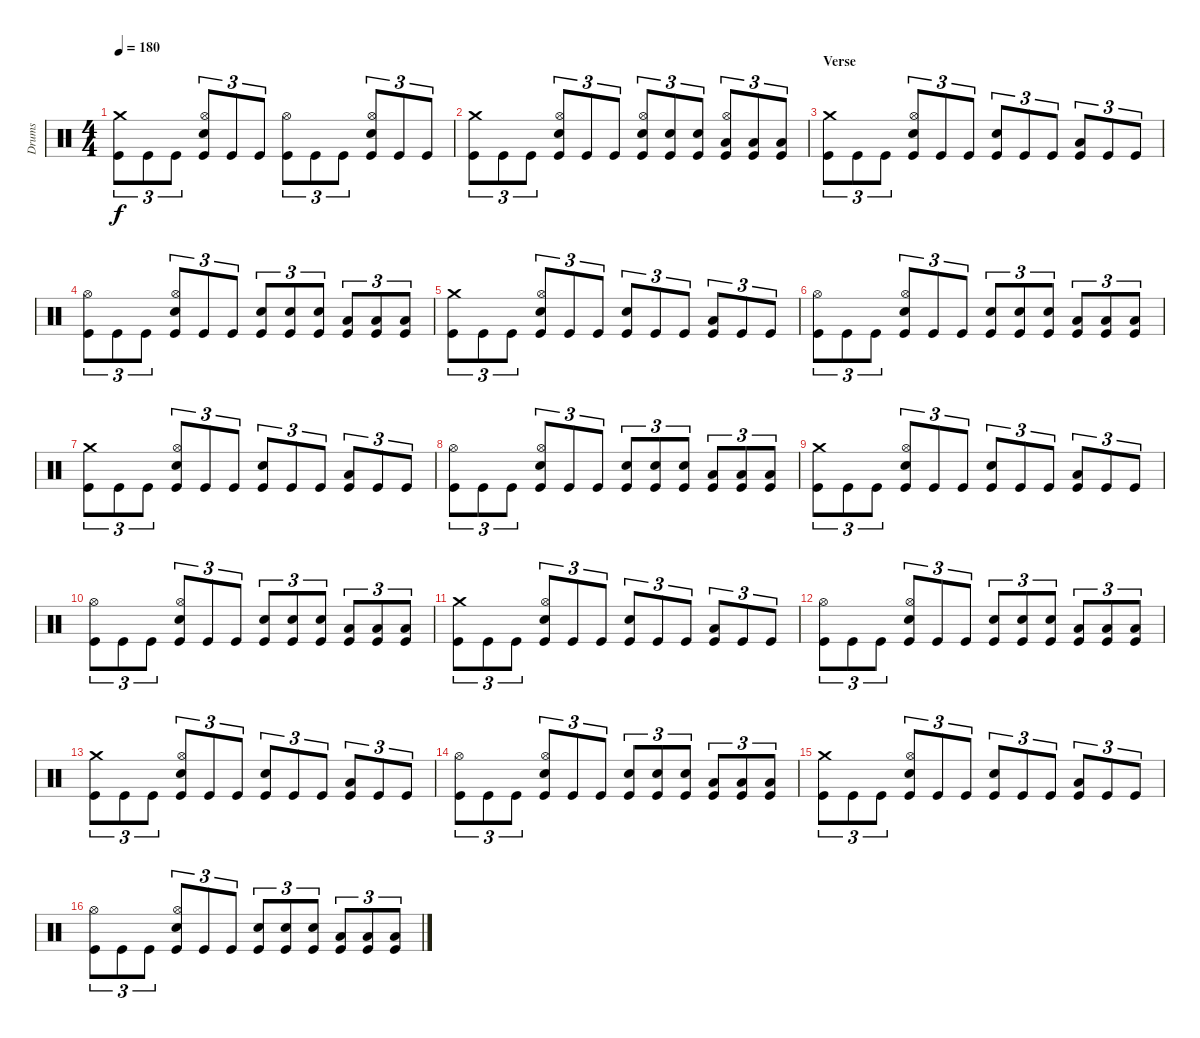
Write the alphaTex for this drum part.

\track ("Drums" "Drums") {instrument percussion}
\staff {score}
\articulation defaults
\ts (4 4)
\tempo 180
\clef neutral
\ks c
("Crash medium (hit)" "Kick (hit)").8{tu (3 2) dy f} "Kick (hit)".8{tu (3 2)} "Kick (hit)".8{tu (3 2)} ("Hi-Hat (open)" "Electric Snare (hit)" "Kick (hit)").8{tu (3 2)} "Kick (hit)".8{tu (3 2)} "Kick (hit)".8{tu (3 2)} ("Hi-Hat (open)" "Kick (hit)").8{tu (3 2)} "Kick (hit)".8{tu (3 2)} "Kick (hit)".8{tu (3 2)} ("Hi-Hat (open)" "Electric Snare (hit)" "Kick (hit)").8{tu (3 2)} "Kick (hit)".8{tu (3 2)} "Kick (hit)".8{tu (3 2)} |
("Crash medium (hit)" "Kick (hit)").8{tu (3 2)} "Kick (hit)".8{tu (3 2)} "Kick (hit)".8{tu (3 2)} ("Hi-Hat (open)" "Electric Snare (hit)" "Kick (hit)").8{tu (3 2)} "Kick (hit)".8{tu (3 2)} "Kick (hit)".8{tu (3 2)} ("Hi-Hat (open)" "Electric Snare (hit)" "Kick (hit)").8{tu (3 2)} ("Electric Snare (hit)" "Kick (hit)").8{tu (3 2)} ("Electric Snare (hit)" "Kick (hit)").8{tu (3 2)} ("Hi-Hat (open)" "Low Tom (hit)" "Kick (hit)").8{tu (3 2)} ("Low Tom (hit)" "Kick (hit)").8{tu (3 2)} ("Low Tom (hit)" "Kick (hit)").8{tu (3 2)} |
\section ("" "Verse")
("Crash medium (hit)" "Kick (hit)").8{tu (3 2)} "Kick (hit)".8{tu (3 2)} "Kick (hit)".8{tu (3 2)} ("Hi-Hat (open)" "Electric Snare (hit)" "Kick (hit)").8{tu (3 2)} "Kick (hit)".8{tu (3 2)} "Kick (hit)".8{tu (3 2)} ("Electric Snare (hit)" "Kick (hit)").8{tu (3 2)} "Kick (hit)".8{tu (3 2)} "Kick (hit)".8{tu (3 2)} ("Low Tom (hit)" "Kick (hit)").8{tu (3 2)} "Kick (hit)".8{tu (3 2)} "Kick (hit)".8{tu (3 2)} |
("Hi-Hat (open)" "Kick (hit)").8{tu (3 2)} "Kick (hit)".8{tu (3 2)} "Kick (hit)".8{tu (3 2)} ("Hi-Hat (open)" "Electric Snare (hit)" "Kick (hit)").8{tu (3 2)} "Kick (hit)".8{tu (3 2)} "Kick (hit)".8{tu (3 2)} ("Electric Snare (hit)" "Kick (hit)").8{tu (3 2)} ("Electric Snare (hit)" "Kick (hit)").8{tu (3 2)} ("Electric Snare (hit)" "Kick (hit)").8{tu (3 2)} ("Low Tom (hit)" "Kick (hit)").8{tu (3 2)} ("Low Tom (hit)" "Kick (hit)").8{tu (3 2)} ("Low Tom (hit)" "Kick (hit)").8{tu (3 2)} |
("Crash medium (hit)" "Kick (hit)").8{tu (3 2)} "Kick (hit)".8{tu (3 2)} "Kick (hit)".8{tu (3 2)} ("Hi-Hat (open)" "Electric Snare (hit)" "Kick (hit)").8{tu (3 2)} "Kick (hit)".8{tu (3 2)} "Kick (hit)".8{tu (3 2)} ("Electric Snare (hit)" "Kick (hit)").8{tu (3 2)} "Kick (hit)".8{tu (3 2)} "Kick (hit)".8{tu (3 2)} ("Low Tom (hit)" "Kick (hit)").8{tu (3 2)} "Kick (hit)".8{tu (3 2)} "Kick (hit)".8{tu (3 2)} |
("Hi-Hat (open)" "Kick (hit)").8{tu (3 2)} "Kick (hit)".8{tu (3 2)} "Kick (hit)".8{tu (3 2)} ("Hi-Hat (open)" "Electric Snare (hit)" "Kick (hit)").8{tu (3 2)} "Kick (hit)".8{tu (3 2)} "Kick (hit)".8{tu (3 2)} ("Electric Snare (hit)" "Kick (hit)").8{tu (3 2)} ("Electric Snare (hit)" "Kick (hit)").8{tu (3 2)} ("Electric Snare (hit)" "Kick (hit)").8{tu (3 2)} ("Low Tom (hit)" "Kick (hit)").8{tu (3 2)} ("Low Tom (hit)" "Kick (hit)").8{tu (3 2)} ("Low Tom (hit)" "Kick (hit)").8{tu (3 2)} |
("Crash medium (hit)" "Kick (hit)").8{tu (3 2)} "Kick (hit)".8{tu (3 2)} "Kick (hit)".8{tu (3 2)} ("Hi-Hat (open)" "Electric Snare (hit)" "Kick (hit)").8{tu (3 2)} "Kick (hit)".8{tu (3 2)} "Kick (hit)".8{tu (3 2)} ("Electric Snare (hit)" "Kick (hit)").8{tu (3 2)} "Kick (hit)".8{tu (3 2)} "Kick (hit)".8{tu (3 2)} ("Low Tom (hit)" "Kick (hit)").8{tu (3 2)} "Kick (hit)".8{tu (3 2)} "Kick (hit)".8{tu (3 2)} |
("Hi-Hat (open)" "Kick (hit)").8{tu (3 2)} "Kick (hit)".8{tu (3 2)} "Kick (hit)".8{tu (3 2)} ("Hi-Hat (open)" "Electric Snare (hit)" "Kick (hit)").8{tu (3 2)} "Kick (hit)".8{tu (3 2)} "Kick (hit)".8{tu (3 2)} ("Electric Snare (hit)" "Kick (hit)").8{tu (3 2)} ("Electric Snare (hit)" "Kick (hit)").8{tu (3 2)} ("Electric Snare (hit)" "Kick (hit)").8{tu (3 2)} ("Low Tom (hit)" "Kick (hit)").8{tu (3 2)} ("Low Tom (hit)" "Kick (hit)").8{tu (3 2)} ("Low Tom (hit)" "Kick (hit)").8{tu (3 2)} |
("Crash medium (hit)" "Kick (hit)").8{tu (3 2)} "Kick (hit)".8{tu (3 2)} "Kick (hit)".8{tu (3 2)} ("Hi-Hat (open)" "Electric Snare (hit)" "Kick (hit)").8{tu (3 2)} "Kick (hit)".8{tu (3 2)} "Kick (hit)".8{tu (3 2)} ("Electric Snare (hit)" "Kick (hit)").8{tu (3 2)} "Kick (hit)".8{tu (3 2)} "Kick (hit)".8{tu (3 2)} ("Low Tom (hit)" "Kick (hit)").8{tu (3 2)} "Kick (hit)".8{tu (3 2)} "Kick (hit)".8{tu (3 2)} |
("Hi-Hat (open)" "Kick (hit)").8{tu (3 2)} "Kick (hit)".8{tu (3 2)} "Kick (hit)".8{tu (3 2)} ("Hi-Hat (open)" "Electric Snare (hit)" "Kick (hit)").8{tu (3 2)} "Kick (hit)".8{tu (3 2)} "Kick (hit)".8{tu (3 2)} ("Electric Snare (hit)" "Kick (hit)").8{tu (3 2)} ("Electric Snare (hit)" "Kick (hit)").8{tu (3 2)} ("Electric Snare (hit)" "Kick (hit)").8{tu (3 2)} ("Low Tom (hit)" "Kick (hit)").8{tu (3 2)} ("Low Tom (hit)" "Kick (hit)").8{tu (3 2)} ("Low Tom (hit)" "Kick (hit)").8{tu (3 2)} |
("Crash medium (hit)" "Kick (hit)").8{tu (3 2)} "Kick (hit)".8{tu (3 2)} "Kick (hit)".8{tu (3 2)} ("Hi-Hat (open)" "Electric Snare (hit)" "Kick (hit)").8{tu (3 2)} "Kick (hit)".8{tu (3 2)} "Kick (hit)".8{tu (3 2)} ("Electric Snare (hit)" "Kick (hit)").8{tu (3 2)} "Kick (hit)".8{tu (3 2)} "Kick (hit)".8{tu (3 2)} ("Low Tom (hit)" "Kick (hit)").8{tu (3 2)} "Kick (hit)".8{tu (3 2)} "Kick (hit)".8{tu (3 2)} |
("Hi-Hat (open)" "Kick (hit)").8{tu (3 2)} "Kick (hit)".8{tu (3 2)} "Kick (hit)".8{tu (3 2)} ("Hi-Hat (open)" "Electric Snare (hit)" "Kick (hit)").8{tu (3 2)} "Kick (hit)".8{tu (3 2)} "Kick (hit)".8{tu (3 2)} ("Electric Snare (hit)" "Kick (hit)").8{tu (3 2)} ("Electric Snare (hit)" "Kick (hit)").8{tu (3 2)} ("Electric Snare (hit)" "Kick (hit)").8{tu (3 2)} ("Low Tom (hit)" "Kick (hit)").8{tu (3 2)} ("Low Tom (hit)" "Kick (hit)").8{tu (3 2)} ("Low Tom (hit)" "Kick (hit)").8{tu (3 2)} |
("Crash medium (hit)" "Kick (hit)").8{tu (3 2)} "Kick (hit)".8{tu (3 2)} "Kick (hit)".8{tu (3 2)} ("Hi-Hat (open)" "Electric Snare (hit)" "Kick (hit)").8{tu (3 2)} "Kick (hit)".8{tu (3 2)} "Kick (hit)".8{tu (3 2)} ("Electric Snare (hit)" "Kick (hit)").8{tu (3 2)} "Kick (hit)".8{tu (3 2)} "Kick (hit)".8{tu (3 2)} ("Low Tom (hit)" "Kick (hit)").8{tu (3 2)} "Kick (hit)".8{tu (3 2)} "Kick (hit)".8{tu (3 2)} |
("Hi-Hat (open)" "Kick (hit)").8{tu (3 2)} "Kick (hit)".8{tu (3 2)} "Kick (hit)".8{tu (3 2)} ("Hi-Hat (open)" "Electric Snare (hit)" "Kick (hit)").8{tu (3 2)} "Kick (hit)".8{tu (3 2)} "Kick (hit)".8{tu (3 2)} ("Electric Snare (hit)" "Kick (hit)").8{tu (3 2)} ("Electric Snare (hit)" "Kick (hit)").8{tu (3 2)} ("Electric Snare (hit)" "Kick (hit)").8{tu (3 2)} ("Low Tom (hit)" "Kick (hit)").8{tu (3 2)} ("Low Tom (hit)" "Kick (hit)").8{tu (3 2)} ("Low Tom (hit)" "Kick (hit)").8{tu (3 2)} |
("Crash medium (hit)" "Kick (hit)").8{tu (3 2)} "Kick (hit)".8{tu (3 2)} "Kick (hit)".8{tu (3 2)} ("Hi-Hat (open)" "Electric Snare (hit)" "Kick (hit)").8{tu (3 2)} "Kick (hit)".8{tu (3 2)} "Kick (hit)".8{tu (3 2)} ("Electric Snare (hit)" "Kick (hit)").8{tu (3 2)} "Kick (hit)".8{tu (3 2)} "Kick (hit)".8{tu (3 2)} ("Low Tom (hit)" "Kick (hit)").8{tu (3 2)} "Kick (hit)".8{tu (3 2)} "Kick (hit)".8{tu (3 2)} |
("Hi-Hat (open)" "Kick (hit)").8{tu (3 2)} "Kick (hit)".8{tu (3 2)} "Kick (hit)".8{tu (3 2)} ("Hi-Hat (open)" "Electric Snare (hit)" "Kick (hit)").8{tu (3 2)} "Kick (hit)".8{tu (3 2)} "Kick (hit)".8{tu (3 2)} ("Electric Snare (hit)" "Kick (hit)").8{tu (3 2)} ("Electric Snare (hit)" "Kick (hit)").8{tu (3 2)} ("Electric Snare (hit)" "Kick (hit)").8{tu (3 2)} ("Low Tom (hit)" "Kick (hit)").8{tu (3 2)} ("Low Tom (hit)" "Kick (hit)").8{tu (3 2)} ("Low Tom (hit)" "Kick (hit)").8{tu (3 2)}
